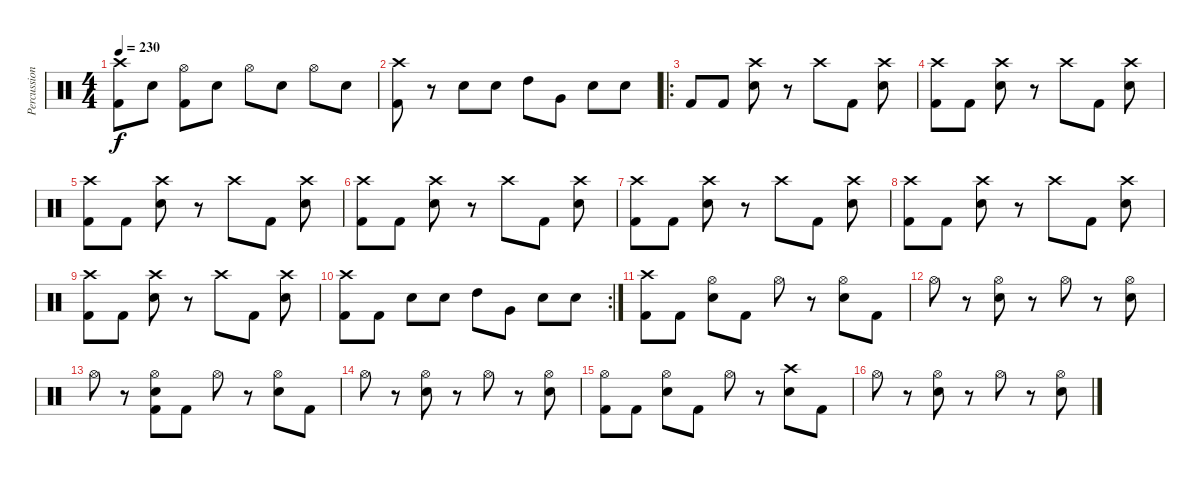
\track ("Percussion" "Percussion") {instrument percussion}
\staff {score}
\articulation defaults
\ts (4 4)
\tempo 230
\clef neutral
\ks c
("Crash high (hit)" "Kick (hit) 2").8{dy f} "Electric Snare (hit)".8 ("Hi-Hat (open)" "Kick (hit) 2").8 "Electric Snare (hit)".8 "Hi-Hat (open)".8 "Electric Snare (hit)".8 "Hi-Hat (open)".8 "Electric Snare (hit)".8 |
("Crash high (hit)" "Kick (hit) 2").8 r.8 "Electric Snare (hit)".8 "Electric Snare (hit)".8 "High Tom (hit)".8 "Very Low Tom (hit)".8 "Electric Snare (hit)".8 "Electric Snare (hit)".8 |
\ro "Kick (hit) 2".8 "Kick (hit) 2".8
("Crash high (hit)" "Electric Snare (hit)").8 r.8 "Crash high (hit)".8 "Kick (hit) 2".8 ("Crash high (hit)" "Electric Snare (hit)").8 |
("Crash high (hit)" "Kick (hit) 2").8 "Kick (hit) 2".8 ("Crash high (hit)" "Electric Snare (hit)").8 r.8 "Crash high (hit)".8 "Kick (hit) 2".8 ("Crash high (hit)" "Electric Snare (hit)").8 |
("Crash high (hit)" "Kick (hit) 2").8 "Kick (hit) 2".8 ("Crash high (hit)" "Electric Snare (hit)").8 r.8 "Crash high (hit)".8 "Kick (hit) 2".8 ("Crash high (hit)" "Electric Snare (hit)").8 |
("Crash high (hit)" "Kick (hit) 2").8 "Kick (hit) 2".8 ("Crash high (hit)" "Electric Snare (hit)").8 r.8 "Crash high (hit)".8 "Kick (hit) 2".8 ("Crash high (hit)" "Electric Snare (hit)").8 |
("Crash high (hit)" "Kick (hit) 2").8 "Kick (hit) 2".8 ("Crash high (hit)" "Electric Snare (hit)").8 r.8 "Crash high (hit)".8 "Kick (hit) 2".8 ("Crash high (hit)" "Electric Snare (hit)").8 |
("Crash high (hit)" "Kick (hit) 2").8 "Kick (hit) 2".8 ("Crash high (hit)" "Electric Snare (hit)").8 r.8 "Crash high (hit)".8 "Kick (hit) 2".8 ("Crash high (hit)" "Electric Snare (hit)").8 |
("Crash high (hit)" "Kick (hit) 2").8 "Kick (hit) 2".8 ("Crash high (hit)" "Electric Snare (hit)").8 r.8 "Crash high (hit)".8 "Kick (hit) 2".8 ("Crash high (hit)" "Electric Snare (hit)").8 |
\rc 2
("Crash high (hit)" "Kick (hit) 2").8 "Kick (hit) 2".8 "Electric Snare (hit)".8 "Electric Snare (hit)".8 "High Tom (hit)".8 "Very Low Tom (hit)".8 "Electric Snare (hit)".8 "Electric Snare (hit)".8 |
("Crash high (hit)" "Kick (hit) 2").8 "Kick (hit) 2".8 ("Hi-Hat (open)" "Electric Snare (hit)").8 "Kick (hit) 2".8 "Hi-Hat (open)".8 r.8 ("Hi-Hat (open)" "Electric Snare (hit)").8 "Kick (hit) 2".8 |
"Hi-Hat (open)".8 r.8 ("Hi-Hat (open)" "Electric Snare (hit)").8 r.8 "Hi-Hat (open)".8 r.8 ("Hi-Hat (open)" "Electric Snare (hit)").8 |
"Hi-Hat (open)".8 r.8 ("Hi-Hat (open)" "Electric Snare (hit)" "Kick (hit) 2").8 "Kick (hit) 2".8 "Hi-Hat (open)".8 r.8 ("Hi-Hat (open)" "Electric Snare (hit)").8 "Kick (hit) 2".8 |
"Hi-Hat (open)".8 r.8 ("Hi-Hat (open)" "Electric Snare (hit)").8 r.8 "Hi-Hat (open)".8 r.8 ("Hi-Hat (open)" "Electric Snare (hit)").8 |
("Hi-Hat (open)" "Kick (hit) 2").8 "Kick (hit) 2".8 ("Hi-Hat (open)" "Electric Snare (hit)").8 "Kick (hit) 2".8 "Hi-Hat (open)".8 r.8 ("Crash high (hit)" "Electric Snare (hit)").8 "Kick (hit) 2".8 |
"Hi-Hat (open)".8 r.8 ("Hi-Hat (open)" "Electric Snare (hit)").8 r.8 "Hi-Hat (open)".8 r.8 ("Hi-Hat (open)" "Electric Snare (hit)").8
